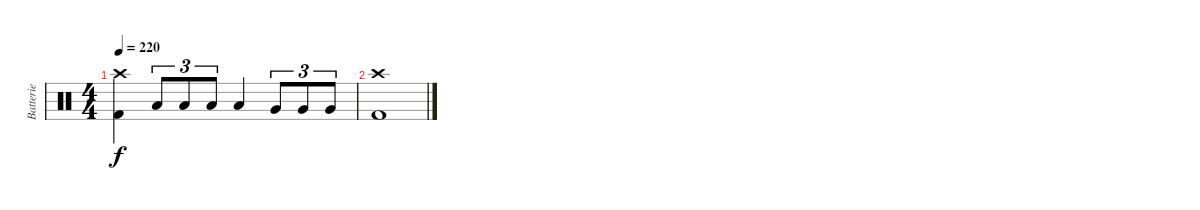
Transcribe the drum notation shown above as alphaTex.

\track ("Batterie" "Batterie") {instrument percussion}
\staff {score}
\articulation defaults
\ts (4 4)
\tempo 220
\clef neutral
\ks c
("Crash high (hit)" "Kick (hit) 2").4{dy f} "Low Tom (hit)".8{tu (3 2)} "Low Tom (hit)".8{tu (3 2)} "Low Tom (hit)".8{tu (3 2)} "Low Tom (hit)".4 "Very Low Tom (hit)".8{tu (3 2)} "Very Low Tom (hit)".8{tu (3 2)} "Very Low Tom (hit)".8{tu (3 2)} |
("Crash high (hit)" "Kick (hit) 2").1
